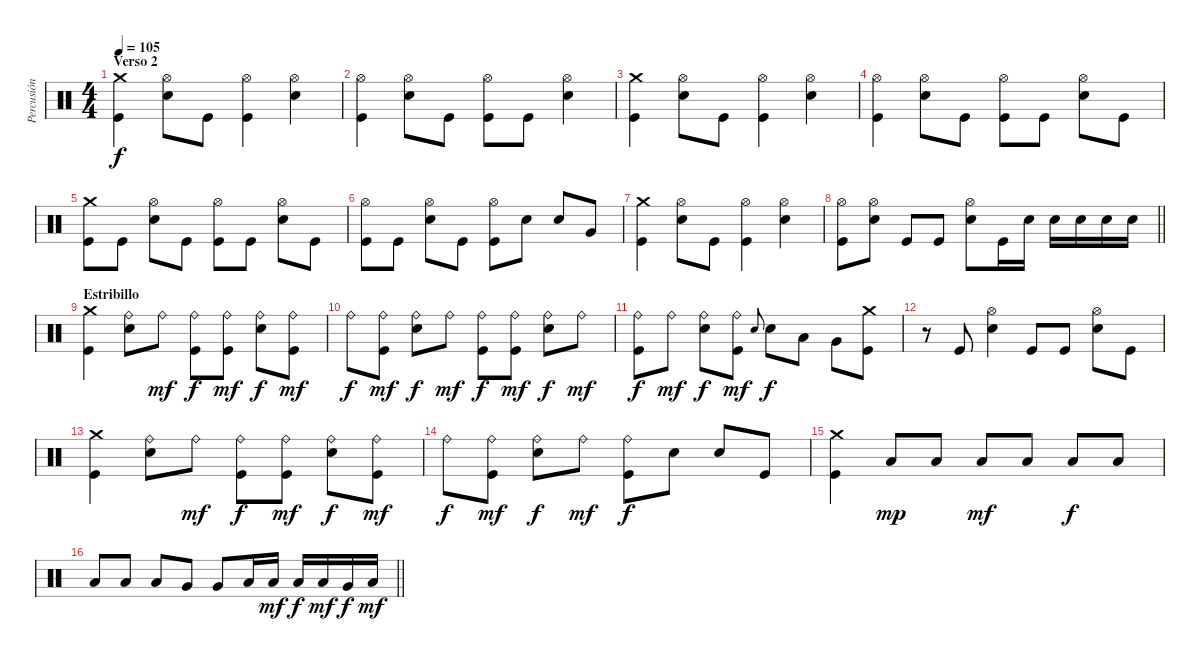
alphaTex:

\track ("Percusión" "Percusión") {instrument percussion}
\staff {score}
\articulation defaults
\ts (4 4)
\section ("" "Verso 2")
\tempo 105
\clef neutral
\ks c
("Crash medium (hit)" "Kick (hit)").4{dy f} ("Hi-Hat (open)" "Snare (hit) 2").8 "Kick (hit)".8 ("Hi-Hat (open)" "Kick (hit)").4 ("Hi-Hat (open)" "Snare (hit) 2").4 |
("Hi-Hat (open)" "Kick (hit)").4 ("Hi-Hat (open)" "Snare (hit) 2").8 "Kick (hit)".8 ("Hi-Hat (open)" "Kick (hit)").8 "Kick (hit)".8 ("Hi-Hat (open)" "Snare (hit) 2").4 |
("Crash medium (hit)" "Kick (hit)").4 ("Hi-Hat (open)" "Snare (hit) 2").8 "Kick (hit)".8 ("Hi-Hat (open)" "Kick (hit)").4 ("Hi-Hat (open)" "Snare (hit) 2").4 |
("Hi-Hat (open)" "Kick (hit)").4 ("Hi-Hat (open)" "Snare (hit) 2").8 "Kick (hit)".8 ("Hi-Hat (open)" "Kick (hit)").8 "Kick (hit)".8 ("Hi-Hat (open)" "Snare (hit) 2").8 "Kick (hit)".8 |
("Crash medium (hit)" "Kick (hit)").8 "Kick (hit)".8 ("Hi-Hat (open)" "Snare (hit) 2").8 "Kick (hit)".8 ("Hi-Hat (open)" "Kick (hit)").8 "Kick (hit)".8 ("Hi-Hat (open)" "Snare (hit) 2").8 "Kick (hit)".8 |
("Hi-Hat (open)" "Kick (hit)").8 "Kick (hit)".8 ("Hi-Hat (open)" "Snare (hit) 2").8 "Kick (hit)".8 ("Hi-Hat (open)" "Kick (hit)").8 "Snare (hit) 2".8 "Snare (hit) 2".8 "Very Low Tom (hit)".8 |
("Crash medium (hit)" "Kick (hit)").4 ("Hi-Hat (open)" "Snare (hit) 2").8 "Kick (hit)".8 ("Hi-Hat (open)" "Kick (hit)").4 ("Hi-Hat (open)" "Snare (hit) 2").4 |
\barLineRight lightlight
("Hi-Hat (open)" "Kick (hit)").8 ("Hi-Hat (open)" "Snare (hit) 2").8 "Kick (hit)".8 "Kick (hit)".8 ("Hi-Hat (open)" "Snare (hit) 2").8 "Kick (hit)".16 "Snare (hit) 2".16 "Snare (hit) 2".16 "Snare (hit) 2".16 "Snare (hit) 2".16 "Snare (hit) 2".16 |
\section ("" "Estribillo")
("Crash medium (hit)" "Kick (hit)").4 ("Ride (bell)" "Snare (hit) 2").8 "Ride (bell)".8{dy mf} ("Ride (bell)" "Kick (hit)").8{dy f} ("Ride (bell)" "Kick (hit)").8{dy mf} ("Ride (bell)" "Snare (hit) 2").8{dy f} ("Ride (bell)" "Kick (hit)").8{dy mf} |
"Ride (bell)".8{dy f} ("Ride (bell)" "Kick (hit)").8{dy mf} ("Ride (bell)" "Snare (hit) 2").8{dy f} "Ride (bell)".8{dy mf} ("Ride (bell)" "Kick (hit)").8{dy f} ("Ride (bell)" "Kick (hit)").8{dy mf} ("Ride (bell)" "Snare (hit) 2").8{dy f} "Ride (bell)".8{dy mf} |
("Ride (bell)" "Kick (hit)").8{dy f} "Ride (bell)".8{dy mf} ("Ride (bell)" "Snare (hit) 2").8{dy f} ("Ride (bell)" "Kick (hit)").8{dy mf} "Snare (hit) 2".8{gr onbeat} "Snare (hit) 2".8{dy f} "Low Tom (hit)".8 "Very Low Tom (hit)".8 ("Crash medium (hit)" "Kick (hit)").8 |
r.8 "Kick (hit)".8 ("Hi-Hat (open)" "Snare (hit) 2").4 "Kick (hit)".8 "Kick (hit)".8 ("Hi-Hat (open)" "Snare (hit) 2").8 "Kick (hit)".8 |
("Crash medium (hit)" "Kick (hit)").4 ("Ride (bell)" "Snare (hit) 2").8 "Ride (bell)".8{dy mf} ("Ride (bell)" "Kick (hit)").8{dy f} ("Ride (bell)" "Kick (hit)").8{dy mf} ("Ride (bell)" "Snare (hit) 2").8{dy f} ("Ride (bell)" "Kick (hit)").8{dy mf} |
"Ride (bell)".8{dy f} ("Ride (bell)" "Kick (hit)").8{dy mf} ("Ride (bell)" "Snare (hit) 2").8{dy f} "Ride (bell)".8{dy mf} ("Ride (bell)" "Kick (hit)").8{dy f} "Snare (hit) 2".8 "Snare (hit) 2".8 "Kick (hit)".8 |
("Crash medium (hit)" "Kick (hit)").4 "Low Floor Tom (hit)".8{dy mp} "Low Floor Tom (hit)".8 "Low Floor Tom (hit)".8{dy mf} "Low Floor Tom (hit)".8 "Low Floor Tom (hit)".8{dy f} "Low Floor Tom (hit)".8 |
\barLineRight lightlight "Low Floor Tom (hit)".8 "Low Floor Tom (hit)".8 "Low Floor Tom (hit)".8 "Very Low Tom (hit)".8 "Very Low Tom (hit)".8 "Low Floor Tom (hit)".16 "Low Floor Tom (hit)".16{dy mf} "Low Tom (hit)".16{dy f} "Low Tom (hit)".16{dy mf} "Very Low Tom (hit)".16{dy f} "Low Floor Tom (hit)".16{dy mf}
